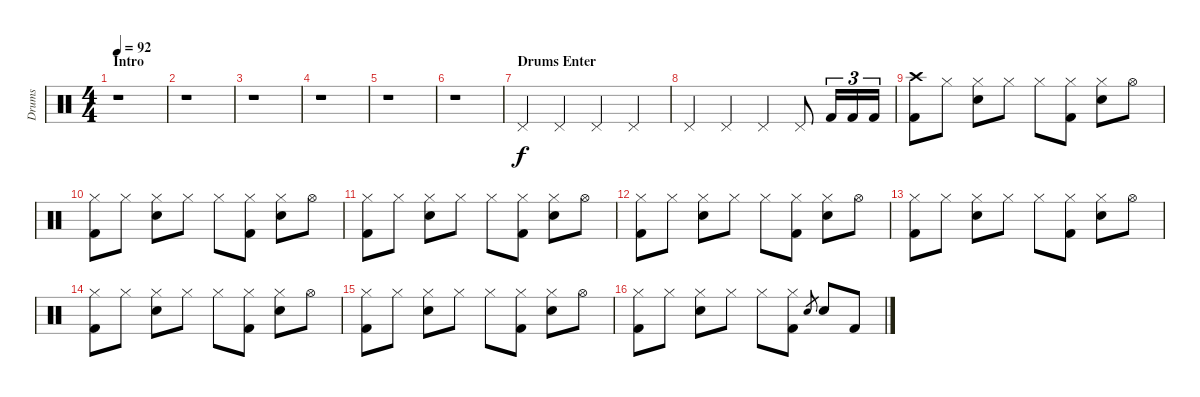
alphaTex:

\track ("Drums" "Drums") {instrument percussion}
\staff {score}
\articulation defaults
\ts (4 4)
\section ("" "Intro")
\tempo 92
\clef neutral
\ks c
r.1{dy f} |
r.1 |
r.1 |
r.1 |
r.1 |
r.1 |
\section ("" "Drums Enter")
"Pedal Hi-Hat (hit)".4 "Pedal Hi-Hat (hit)".4 "Pedal Hi-Hat (hit)".4 "Pedal Hi-Hat (hit)".4 |
"Pedal Hi-Hat (hit)".4 "Pedal Hi-Hat (hit)".4 "Pedal Hi-Hat (hit)".4 "Pedal Hi-Hat (hit)".8 "Kick (hit) 2".16{tu (3 2)} "Kick (hit) 2".16{tu (3 2)} "Kick (hit) 2".16{tu (3 2)} |
("Crash high (hit)" "Kick (hit) 2").8 "Hi-Hat (closed)".8 ("Hi-Hat (closed)" "Electric Snare (hit)").8 "Hi-Hat (closed)".8 "Hi-Hat (closed)".8 ("Hi-Hat (closed)" "Kick (hit) 2").8 ("Hi-Hat (closed)" "Electric Snare (hit)").8 "Hi-Hat (open)".8 |
("Hi-Hat (closed)" "Kick (hit) 2").8 "Hi-Hat (closed)".8 ("Hi-Hat (closed)" "Electric Snare (hit)").8 "Hi-Hat (closed)".8 "Hi-Hat (closed)".8 ("Hi-Hat (closed)" "Kick (hit) 2").8 ("Hi-Hat (closed)" "Electric Snare (hit)").8 "Hi-Hat (open)".8 |
("Hi-Hat (closed)" "Kick (hit) 2").8 "Hi-Hat (closed)".8 ("Hi-Hat (closed)" "Electric Snare (hit)").8 "Hi-Hat (closed)".8 "Hi-Hat (closed)".8 ("Hi-Hat (closed)" "Kick (hit) 2").8 ("Hi-Hat (closed)" "Electric Snare (hit)").8 "Hi-Hat (open)".8 |
("Hi-Hat (closed)" "Kick (hit) 2").8 "Hi-Hat (closed)".8 ("Hi-Hat (closed)" "Electric Snare (hit)").8 "Hi-Hat (closed)".8 "Hi-Hat (closed)".8 ("Hi-Hat (closed)" "Kick (hit) 2").8 ("Hi-Hat (closed)" "Electric Snare (hit)").8 "Hi-Hat (open)".8 |
("Hi-Hat (closed)" "Kick (hit) 2").8 "Hi-Hat (closed)".8 ("Hi-Hat (closed)" "Electric Snare (hit)").8 "Hi-Hat (closed)".8 "Hi-Hat (closed)".8 ("Hi-Hat (closed)" "Kick (hit) 2").8 ("Hi-Hat (closed)" "Electric Snare (hit)").8 "Hi-Hat (open)".8 |
("Hi-Hat (closed)" "Kick (hit) 2").8 "Hi-Hat (closed)".8 ("Hi-Hat (closed)" "Electric Snare (hit)").8 "Hi-Hat (closed)".8 "Hi-Hat (closed)".8 ("Hi-Hat (closed)" "Kick (hit) 2").8 ("Hi-Hat (closed)" "Electric Snare (hit)").8 "Hi-Hat (open)".8 |
("Hi-Hat (closed)" "Kick (hit) 2").8 "Hi-Hat (closed)".8 ("Hi-Hat (closed)" "Electric Snare (hit)").8 "Hi-Hat (closed)".8 "Hi-Hat (closed)".8 ("Hi-Hat (closed)" "Kick (hit) 2").8 ("Hi-Hat (closed)" "Electric Snare (hit)").8 "Hi-Hat (open)".8 |
("Hi-Hat (closed)" "Kick (hit) 2").8 "Hi-Hat (closed)".8 ("Hi-Hat (closed)" "Electric Snare (hit)").8 "Hi-Hat (closed)".8 "Hi-Hat (closed)".8 ("Hi-Hat (closed)" "Kick (hit) 2").8 "Electric Snare (hit)".8{gr} "Electric Snare (hit)".8 "Kick (hit) 2".8
